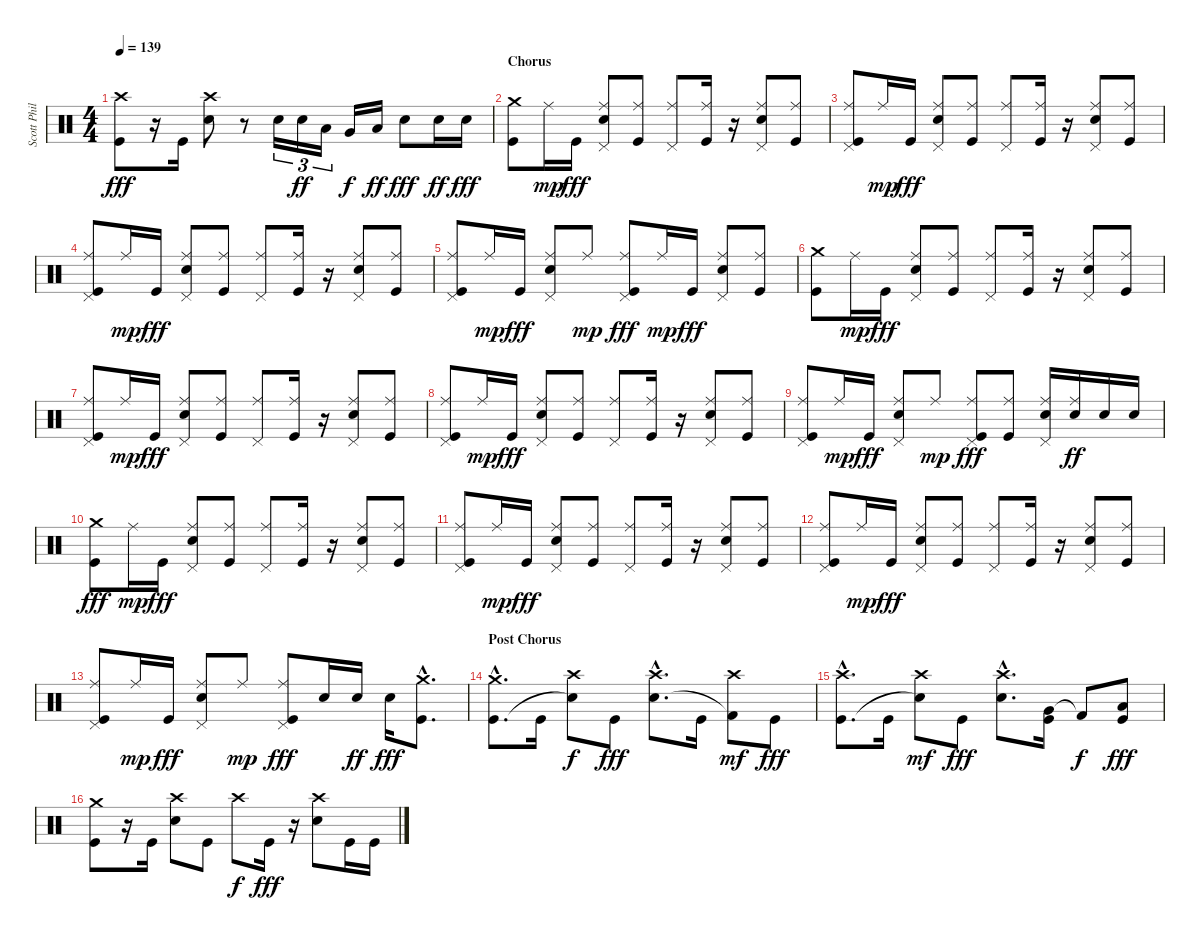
\track ("Scott Phillips - Drums" "Scott Phil") {instrument percussion}
\staff {score}
\articulation defaults
\ts (4 4)
\tempo 139
\clef neutral
\ks c
("Crash high (hit)" "Kick (hit)").8{dy fff} r.16 "Kick (hit)".16 ("Crash high (hit)" "Electric Snare (hit)").8 r.8 "Electric Snare (hit)".16{tu (3 2)} "Electric Snare (hit)".16{tu (3 2) dy ff} "Low Tom (hit)".16{tu (3 2)} "Very Low Tom (hit)".16{dy f} "Low Tom (hit)".16{dy ff} "Electric Snare (hit)".8{dy fff} "Electric Snare (hit)".16{dy ff} "Electric Snare (hit)".16{dy fff} |
\section ("" "Chorus")
("Crash medium (hit)" "Kick (hit)").8 "Ride (middle)".16{dy mp} "Kick (hit)".16{dy fff} ("Pedal Hi-Hat (hit)" "Ride (middle)" "Electric Snare (hit)").8 ("Ride (middle)" "Kick (hit)").8 ("Pedal Hi-Hat (hit)" "Ride (middle)").8 ("Ride (middle)" "Kick (hit)").16 r.16 ("Pedal Hi-Hat (hit)" "Ride (middle)" "Electric Snare (hit)").8 ("Ride (middle)" "Kick (hit)").8 |
("Pedal Hi-Hat (hit)" "Ride (middle)" "Kick (hit)").8 "Ride (middle)".16{dy mp} "Kick (hit)".16{dy fff} ("Pedal Hi-Hat (hit)" "Ride (middle)" "Electric Snare (hit)").8 ("Ride (middle)" "Kick (hit)").8 ("Pedal Hi-Hat (hit)" "Ride (middle)").8 ("Ride (middle)" "Kick (hit)").16 r.16 ("Pedal Hi-Hat (hit)" "Ride (middle)" "Electric Snare (hit)").8 ("Ride (middle)" "Kick (hit)").8 |
("Pedal Hi-Hat (hit)" "Ride (middle)" "Kick (hit)").8 "Ride (middle)".16{dy mp} "Kick (hit)".16{dy fff} ("Pedal Hi-Hat (hit)" "Ride (middle)" "Electric Snare (hit)").8 ("Ride (middle)" "Kick (hit)").8 ("Pedal Hi-Hat (hit)" "Ride (middle)").8 ("Ride (middle)" "Kick (hit)").16 r.16 ("Pedal Hi-Hat (hit)" "Ride (middle)" "Electric Snare (hit)").8 ("Ride (middle)" "Kick (hit)").8 |
("Pedal Hi-Hat (hit)" "Ride (middle)" "Kick (hit)").8 "Ride (middle)".16{dy mp} "Kick (hit)".16{dy fff} ("Pedal Hi-Hat (hit)" "Ride (middle)" "Electric Snare (hit)").8 "Ride (middle)".8{dy mp} ("Pedal Hi-Hat (hit)" "Ride (middle)" "Kick (hit)").8{dy fff} "Ride (middle)".16{dy mp} "Kick (hit)".16{dy fff} ("Pedal Hi-Hat (hit)" "Ride (middle)" "Electric Snare (hit)").8 ("Ride (middle)" "Kick (hit)").8 |
("Crash medium (hit)" "Kick (hit)").8 "Ride (middle)".16{dy mp} "Kick (hit)".16{dy fff} ("Pedal Hi-Hat (hit)" "Ride (middle)" "Electric Snare (hit)").8 ("Ride (middle)" "Kick (hit)").8 ("Pedal Hi-Hat (hit)" "Ride (middle)").8 ("Ride (middle)" "Kick (hit)").16 r.16 ("Pedal Hi-Hat (hit)" "Ride (middle)" "Electric Snare (hit)").8 ("Ride (middle)" "Kick (hit)").8 |
("Pedal Hi-Hat (hit)" "Ride (middle)" "Kick (hit)").8 "Ride (middle)".16{dy mp} "Kick (hit)".16{dy fff} ("Pedal Hi-Hat (hit)" "Ride (middle)" "Electric Snare (hit)").8 ("Ride (middle)" "Kick (hit)").8 ("Pedal Hi-Hat (hit)" "Ride (middle)").8 ("Ride (middle)" "Kick (hit)").16 r.16 ("Pedal Hi-Hat (hit)" "Ride (middle)" "Electric Snare (hit)").8 ("Ride (middle)" "Kick (hit)").8 |
("Pedal Hi-Hat (hit)" "Ride (middle)" "Kick (hit)").8 "Ride (middle)".16{dy mp} "Kick (hit)".16{dy fff} ("Pedal Hi-Hat (hit)" "Ride (middle)" "Electric Snare (hit)").8 ("Ride (middle)" "Kick (hit)").8 ("Pedal Hi-Hat (hit)" "Ride (middle)").8 ("Ride (middle)" "Kick (hit)").16 r.16 ("Pedal Hi-Hat (hit)" "Ride (middle)" "Electric Snare (hit)").8 ("Ride (middle)" "Kick (hit)").8 |
("Pedal Hi-Hat (hit)" "Ride (middle)" "Kick (hit)").8 "Ride (middle)".16{dy mp} "Kick (hit)".16{dy fff} ("Pedal Hi-Hat (hit)" "Ride (middle)" "Electric Snare (hit)").8 "Ride (middle)".8{dy mp} ("Pedal Hi-Hat (hit)" "Ride (middle)" "Kick (hit)").8{dy fff} ("Ride (middle)" "Kick (hit)").8 ("Pedal Hi-Hat (hit)" "Ride (middle)" "Electric Snare (hit)").16 ("Ride (middle)" "Electric Snare (hit)").16{dy ff} "Electric Snare (hit)".16 "Electric Snare (hit)".16 |
("Crash medium (hit)" "Kick (hit)").8{dy fff} "Ride (middle)".16{dy mp} "Kick (hit)".16{dy fff} ("Pedal Hi-Hat (hit)" "Ride (middle)" "Electric Snare (hit)").8 ("Ride (middle)" "Kick (hit)").8 ("Pedal Hi-Hat (hit)" "Ride (middle)").8 ("Ride (middle)" "Kick (hit)").16 r.16 ("Pedal Hi-Hat (hit)" "Ride (middle)" "Electric Snare (hit)").8 ("Ride (middle)" "Kick (hit)").8 |
("Pedal Hi-Hat (hit)" "Ride (middle)" "Kick (hit)").8 "Ride (middle)".16{dy mp} "Kick (hit)".16{dy fff} ("Pedal Hi-Hat (hit)" "Ride (middle)" "Electric Snare (hit)").8 ("Ride (middle)" "Kick (hit)").8 ("Pedal Hi-Hat (hit)" "Ride (middle)").8 ("Ride (middle)" "Kick (hit)").16 r.16 ("Pedal Hi-Hat (hit)" "Ride (middle)" "Electric Snare (hit)").8 ("Ride (middle)" "Kick (hit)").8 |
("Pedal Hi-Hat (hit)" "Ride (middle)" "Kick (hit)").8 "Ride (middle)".16{dy mp} "Kick (hit)".16{dy fff} ("Pedal Hi-Hat (hit)" "Ride (middle)" "Electric Snare (hit)").8 ("Ride (middle)" "Kick (hit)").8 ("Pedal Hi-Hat (hit)" "Ride (middle)").8 ("Ride (middle)" "Kick (hit)").16 r.16 ("Pedal Hi-Hat (hit)" "Ride (middle)" "Electric Snare (hit)").8 ("Ride (middle)" "Kick (hit)").8 |
("Pedal Hi-Hat (hit)" "Ride (middle)" "Kick (hit)").8 "Ride (middle)".16{dy mp} "Kick (hit)".16{dy fff} ("Pedal Hi-Hat (hit)" "Ride (middle)" "Electric Snare (hit)").8 "Ride (middle)".8{dy mp} ("Pedal Hi-Hat (hit)" "Ride (middle)" "Kick (hit)").8{dy fff} "Electric Snare (hit)".16 "Electric Snare (hit)".16{dy ff} "Electric Snare (hit)".16{dy fff} ("Crash medium (hit)"{hac} "Kick (hit)"{hac}).8{d} |
\section ("" "Post Chorus")
("Crash medium (hit)"{hac} "Kick (hit)"{hac}).8{d} "Kick (hit)".16 ("Crash high (hit)" "Snare (hit)"{t}).8{dy f} "Kick (hit)".8{dy fff} ("Crash high (hit)"{hac} "Electric Snare (hit)"{hac}).8{d} "Kick (hit)".16 ("Crash high (hit)" "Kick (hit) 2"{t}).8{dy mf} "Kick (hit)".8{dy fff} |
("Crash high (hit)"{hac} "Kick (hit)"{hac}).8{d} "Kick (hit)".16 ("Crash high (hit)" "Snare (hit)"{t}).8{dy mf} "Kick (hit)".8{dy fff} ("Crash high (hit)"{hac} "Electric Snare (hit)"{hac}).8{d} ("Very Low Tom (hit)" "Kick (hit)").16 "Kick (hit) 2"{t}.8{dy f} ("Low Floor Tom (hit)" "Kick (hit)").8{dy fff} |
("Crash medium (hit)" "Kick (hit)").8 r.16 "Kick (hit)".16 ("Crash high (hit)" "Electric Snare (hit)").8 "Kick (hit)".8 "Crash high (hit)".8{dy f} "Kick (hit)".16{dy fff} r.16 ("Crash high (hit)" "Electric Snare (hit)").8 "Kick (hit)".16 "Kick (hit)".16
